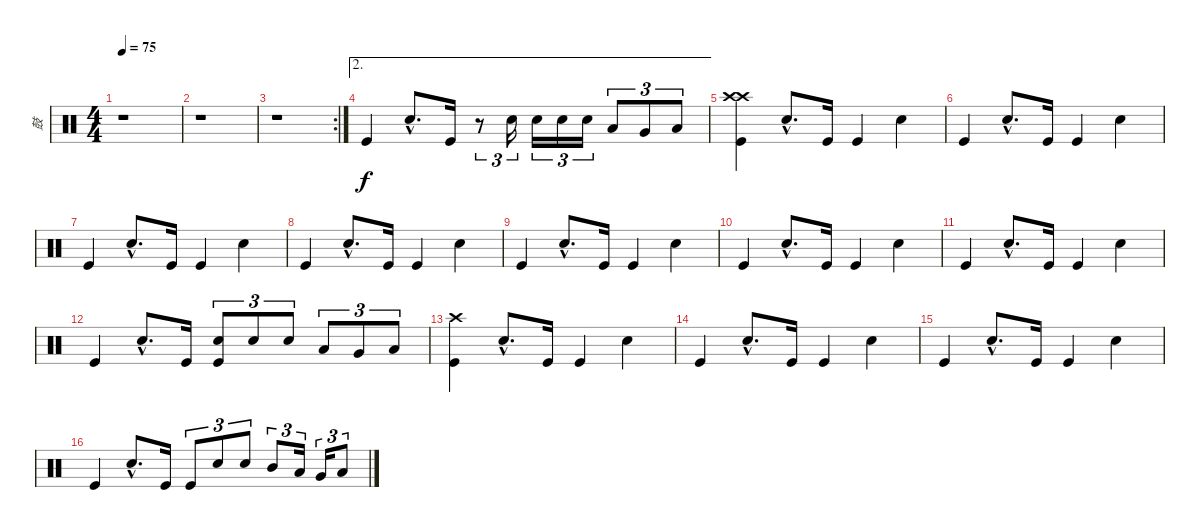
\track ("鼓" "鼓") {instrument percussion}
\staff {score}
\articulation defaults
\ts (4 4)
\tempo 75
\clef neutral
\ks c
r.1{dy f} |
r.1 |
\rc 2
r.1 |
\ae 2 "Kick (hit)".4 "Snare (hit) 2"{hac}.8{d} "Kick (hit)".16
r.8{tu (3 2)} "Snare (hit) 2".16{tu (3 2)} "Snare (hit) 2".16{tu (3 2)} "Snare (hit) 2".16{tu (3 2)} "Snare (hit) 2".16{tu (3 2)} "Low Tom (hit)".8{tu (3 2)} "Very Low Tom (hit)".8{tu (3 2)} "Low Floor Tom (hit)".8{tu (3 2)} |
("Crash high (hit)" "Crash high (hit)" "Kick (hit)").4 "Snare (hit) 2"{hac}.8{d} "Kick (hit)".16 "Kick (hit)".4 "Snare (hit) 2".4 |
"Kick (hit)".4 "Snare (hit) 2"{hac}.8{d} "Kick (hit)".16 "Kick (hit)".4 "Snare (hit) 2".4 |
"Kick (hit)".4 "Snare (hit) 2"{hac}.8{d} "Kick (hit)".16 "Kick (hit)".4 "Snare (hit) 2".4 |
"Kick (hit)".4 "Snare (hit) 2"{hac}.8{d} "Kick (hit)".16 "Kick (hit)".4 "Snare (hit) 2".4 |
"Kick (hit)".4 "Snare (hit) 2"{hac}.8{d} "Kick (hit)".16 "Kick (hit)".4 "Snare (hit) 2".4 |
"Kick (hit)".4 "Snare (hit) 2"{hac}.8{d} "Kick (hit)".16 "Kick (hit)".4 "Snare (hit) 2".4 |
"Kick (hit)".4 "Snare (hit) 2"{hac}.8{d} "Kick (hit)".16 "Kick (hit)".4 "Snare (hit) 2".4 |
"Kick (hit)".4 "Snare (hit) 2"{hac}.8{d} "Kick (hit)".16 ("Snare (hit) 2" "Kick (hit)").8{tu (3 2)} "Snare (hit) 2".8{tu (3 2)} "Snare (hit) 2".8{tu (3 2)} "Low Tom (hit)".8{tu (3 2)} "Very Low Tom (hit)".8{tu (3 2)} "Low Floor Tom (hit)".8{tu (3 2)} |
("Crash high (hit)" "Kick (hit)").4 "Snare (hit) 2"{hac}.8{d} "Kick (hit)".16 "Kick (hit)".4 "Snare (hit) 2".4 |
"Kick (hit)".4 "Snare (hit) 2"{hac}.8{d} "Kick (hit)".16 "Kick (hit)".4 "Snare (hit) 2".4 |
"Kick (hit)".4 "Snare (hit) 2"{hac}.8{d} "Kick (hit)".16 "Kick (hit)".4 "Snare (hit) 2".4 |
"Kick (hit)".4 "Snare (hit) 2"{hac}.8{d} "Kick (hit)".16 "Kick (hit)".8{tu (3 2)} "Snare (hit) 2".8{tu (3 2)} "Snare (hit) 2".8{tu (3 2)} "Mid Tom (hit)".8{tu (3 2)} "Low Tom (hit)".16{tu (3 2)} "Very Low Tom (hit)".16{tu (3 2)} "Low Floor Tom (hit)".8{tu (3 2)}
